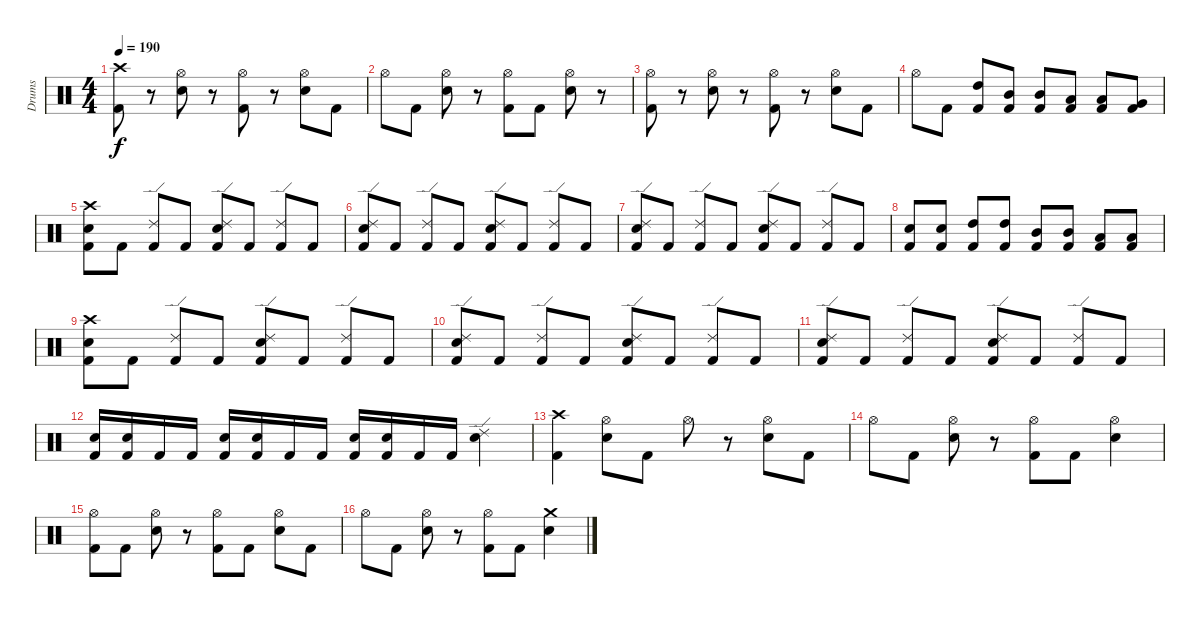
\track ("Drums" "Drums") {instrument percussion}
\staff {score}
\articulation defaults
\ts (4 4)
\tempo 190
\clef neutral
\ks c
("Crash high (hit)" "Kick (hit) 2").8{dy f} r.8 ("Hi-Hat (open)" "Snare (hit) 2").8 r.8 ("Hi-Hat (open)" "Kick (hit) 2").8 r.8 ("Hi-Hat (open)" "Snare (hit) 2").8 "Kick (hit) 2".8 |
"Hi-Hat (open)".8 "Kick (hit) 2".8 ("Hi-Hat (open)" "Snare (hit) 2").8 r.8 ("Hi-Hat (open)" "Kick (hit) 2").8 "Kick (hit) 2".8 ("Hi-Hat (open)" "Snare (hit) 2").8 r.8 |
("Hi-Hat (open)" "Kick (hit) 2").8 r.8 ("Hi-Hat (open)" "Snare (hit) 2").8 r.8 ("Hi-Hat (open)" "Kick (hit) 2").8 r.8 ("Hi-Hat (open)" "Snare (hit) 2").8 "Kick (hit) 2".8 |
"Hi-Hat (open)".8 "Kick (hit) 2".8 ("High Tom (hit)" "Kick (hit) 2").8 ("Mid Tom (hit)" "Kick (hit) 2").8 ("Mid Tom (hit)" "Kick (hit) 2").8 ("Low Tom (hit)" "Kick (hit) 2").8 ("Low Tom (hit)" "Kick (hit) 2").8 ("Very Low Tom (hit)" "Kick (hit) 2").8 |
("Crash high (hit)" "Snare (hit) 2" "Kick (hit) 2").8 "Kick (hit) 2".8 ("Ride (edge) 2" "Kick (hit) 2").8 "Kick (hit) 2".8 ("Ride (edge) 2" "Snare (hit) 2" "Kick (hit) 2").8 "Kick (hit) 2".8 ("Ride (edge) 2" "Kick (hit) 2").8 "Kick (hit) 2".8 |
("Ride (edge) 2" "Snare (hit) 2" "Kick (hit) 2").8 "Kick (hit) 2".8 ("Ride (edge) 2" "Kick (hit) 2").8 "Kick (hit) 2".8 ("Ride (edge) 2" "Snare (hit) 2" "Kick (hit) 2").8 "Kick (hit) 2".8 ("Ride (edge) 2" "Kick (hit) 2").8 "Kick (hit) 2".8 |
("Ride (edge) 2" "Snare (hit) 2" "Kick (hit) 2").8 "Kick (hit) 2".8 ("Ride (edge) 2" "Kick (hit) 2").8 "Kick (hit) 2".8 ("Ride (edge) 2" "Snare (hit) 2" "Kick (hit) 2").8 "Kick (hit) 2".8 ("Ride (edge) 2" "Kick (hit) 2").8 "Kick (hit) 2".8 |
("Snare (hit) 2" "Kick (hit) 2").8 ("Snare (hit) 2" "Kick (hit) 2").8 ("High Tom (hit)" "Kick (hit) 2").8 ("High Tom (hit)" "Kick (hit) 2").8 ("Mid Tom (hit)" "Kick (hit) 2").8 ("Mid Tom (hit)" "Kick (hit) 2").8 ("Low Tom (hit)" "Kick (hit) 2").8 ("Low Tom (hit)" "Kick (hit) 2").8 |
("Crash high (hit)" "Snare (hit) 2" "Kick (hit) 2").8 "Kick (hit) 2".8 ("Ride (edge) 2" "Kick (hit) 2").8 "Kick (hit) 2".8 ("Ride (edge) 2" "Snare (hit) 2" "Kick (hit) 2").8 "Kick (hit) 2".8 ("Ride (edge) 2" "Kick (hit) 2").8 "Kick (hit) 2".8 |
("Ride (edge) 2" "Snare (hit) 2" "Kick (hit) 2").8 "Kick (hit) 2".8 ("Ride (edge) 2" "Kick (hit) 2").8 "Kick (hit) 2".8 ("Ride (edge) 2" "Snare (hit) 2" "Kick (hit) 2").8 "Kick (hit) 2".8 ("Ride (edge) 2" "Kick (hit) 2").8 "Kick (hit) 2".8 |
("Ride (edge) 2" "Snare (hit) 2" "Kick (hit) 2").8 "Kick (hit) 2".8 ("Ride (edge) 2" "Kick (hit) 2").8 "Kick (hit) 2".8 ("Ride (edge) 2" "Snare (hit) 2" "Kick (hit) 2").8 "Kick (hit) 2".8 ("Ride (edge) 2" "Kick (hit) 2").8 "Kick (hit) 2".8 |
("Snare (hit) 2" "Kick (hit) 2").16 ("Snare (hit) 2" "Kick (hit) 2").16 "Kick (hit) 2".16 "Kick (hit) 2".16 ("Snare (hit) 2" "Kick (hit) 2").16 ("Snare (hit) 2" "Kick (hit) 2").16 "Kick (hit) 2".16 "Kick (hit) 2".16 ("Snare (hit) 2" "Kick (hit) 2").16 ("Snare (hit) 2" "Kick (hit) 2").16 "Kick (hit) 2".16 "Kick (hit) 2".16 ("Ride (edge) 2" "Snare (hit) 2").4 |
("Crash high (hit)" "Kick (hit) 2").4 ("Hi-Hat (open)" "Snare (hit) 2").8 "Kick (hit) 2".8 "Hi-Hat (open)".8 r.8 ("Hi-Hat (open)" "Snare (hit) 2").8 "Kick (hit) 2".8 |
"Hi-Hat (open)".8 "Kick (hit) 2".8 ("Hi-Hat (open)" "Snare (hit) 2").8 r.8 ("Hi-Hat (open)" "Kick (hit) 2").8 "Kick (hit) 2".8 ("Hi-Hat (open)" "Snare (hit) 2").4 |
("Hi-Hat (open)" "Kick (hit) 2").8 "Kick (hit) 2".8 ("Hi-Hat (open)" "Snare (hit) 2").8 r.8 ("Hi-Hat (open)" "Kick (hit) 2").8 "Kick (hit) 2".8 ("Hi-Hat (open)" "Snare (hit) 2").8 "Kick (hit) 2".8 |
"Hi-Hat (open)".8 "Kick (hit) 2".8 ("Hi-Hat (open)" "Snare (hit) 2").8 r.8 ("Hi-Hat (open)" "Kick (hit) 2").8 "Kick (hit) 2".8 ("Crash medium (hit)" "Snare (hit) 2").4
